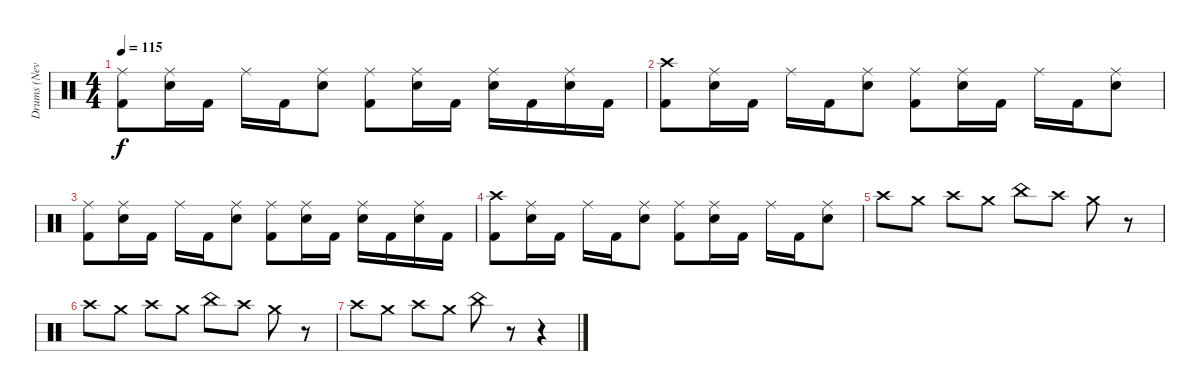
\track ("Drums (Nevi)" "Drums (Nev") {instrument percussion}
\staff {score}
\articulation defaults
\ts (4 4)
\tempo 115
\clef neutral
\ks c
("Kick (hit) 2" "Ride (middle)").8{dy f} ("Snare (hit) 2" "Ride (middle)").16 "Kick (hit) 2".16 "Ride (middle)".16 "Kick (hit) 2".16 ("Snare (hit) 2" "Ride (middle)").8 ("Kick (hit) 2" "Ride (middle)").8 ("Snare (hit) 2" "Ride (middle)").16 "Kick (hit) 2".16 ("Snare (hit) 2" "Ride (middle)").16 "Kick (hit) 2".16 ("Snare (hit) 2" "Ride (middle)").16 "Kick (hit) 2".16 |
("Kick (hit) 2" "Crash high (hit)").8 ("Snare (hit) 2" "Ride (middle)").16 "Kick (hit) 2".16 "Ride (middle)".16 "Kick (hit) 2".16 ("Snare (hit) 2" "Ride (middle)").8 ("Kick (hit) 2" "Ride (middle)").8 ("Snare (hit) 2" "Ride (middle)").16 "Kick (hit) 2".16 "Ride (middle)".16 "Kick (hit) 2".16 ("Snare (hit) 2" "Ride (middle)").8 |
("Kick (hit) 2" "Ride (middle)").8 ("Snare (hit) 2" "Ride (middle)").16 "Kick (hit) 2".16 "Ride (middle)".16 "Kick (hit) 2".16 ("Snare (hit) 2" "Ride (middle)").8 ("Kick (hit) 2" "Ride (middle)").8 ("Snare (hit) 2" "Ride (middle)").16 "Kick (hit) 2".16 ("Snare (hit) 2" "Ride (middle)").16 "Kick (hit) 2".16 ("Snare (hit) 2" "Ride (middle)").16 "Kick (hit) 2".16 |
("Kick (hit) 2" "Crash high (hit)").8 ("Snare (hit) 2" "Ride (middle)").16 "Kick (hit) 2".16 "Ride (middle)".16 "Kick (hit) 2".16 ("Snare (hit) 2" "Ride (middle)").8 ("Kick (hit) 2" "Ride (middle)").8 ("Snare (hit) 2" "Ride (middle)").16 "Kick (hit) 2".16 "Ride (middle)".16 "Kick (hit) 2".16 ("Snare (hit) 2" "Ride (middle)").8 |
"Crash high (hit)".8 "Crash medium (hit)".8 "Crash high (hit)".8 "Crash medium (hit)".8 "China (hit)".8 "Crash high (hit)".8 "Crash medium (hit)".8 r.8 |
"Crash high (hit)".8 "Crash medium (hit)".8 "Crash high (hit)".8 "Crash medium (hit)".8 "China (hit)".8 "Crash high (hit)".8 "Crash medium (hit)".8 r.8 |
"Crash high (hit)".8 "Crash medium (hit)".8 "Crash high (hit)".8 "Crash medium (hit)".8 "China (hit)".8 r.8 r.4
